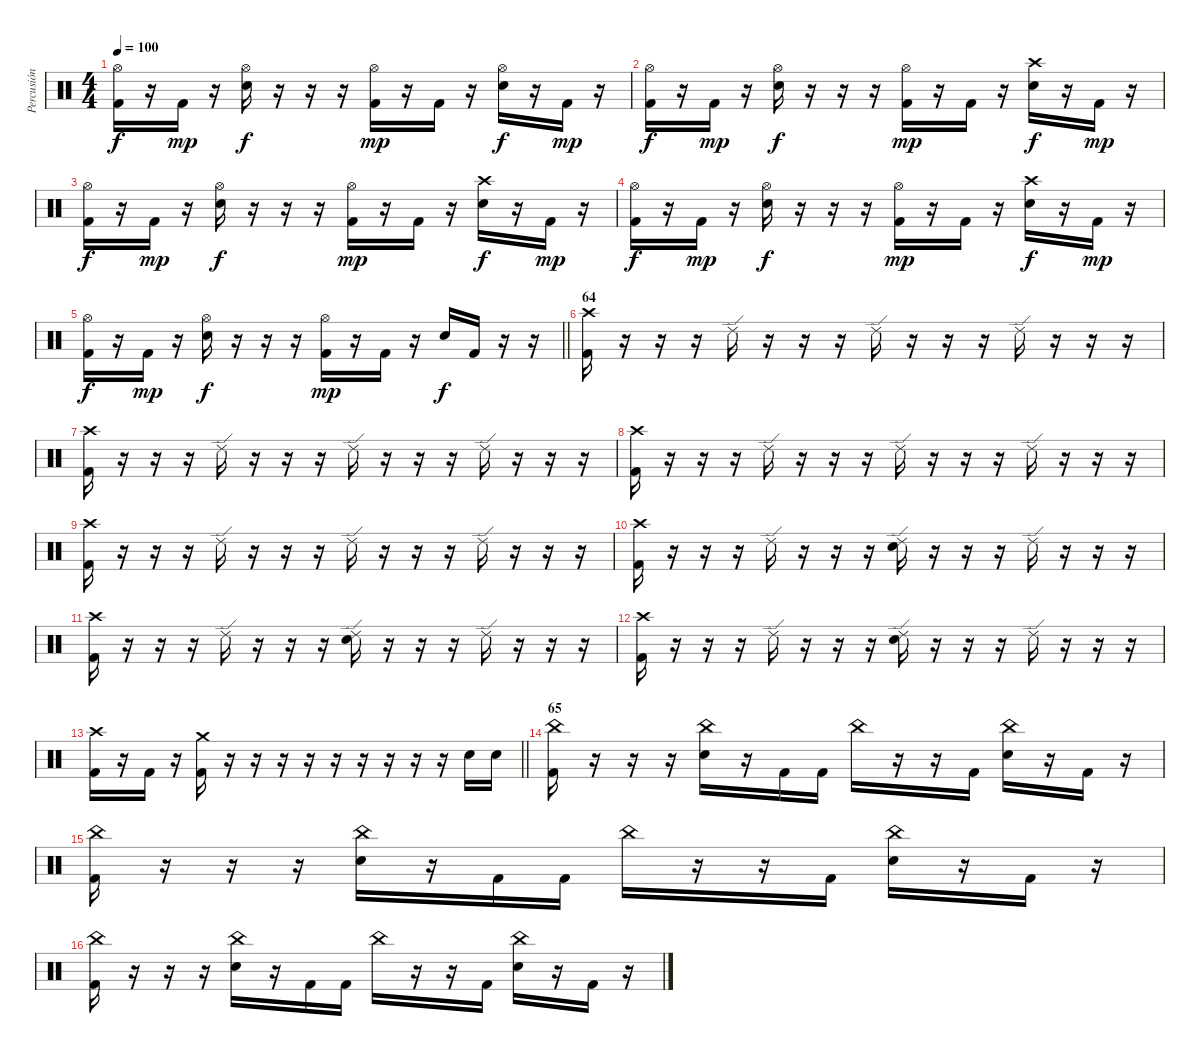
\track ("Percusión" "Percusión") {instrument percussion}
\staff {score}
\articulation defaults
\ts (4 4)
\tempo 100
\clef neutral
\ks c
("Hi-Hat (open)" "Kick (hit) 2").16{dy f} r.16 "Kick (hit) 2".16{dy mp} r.16 ("Hi-Hat (open)" "Electric Snare (hit)").16{dy f} r.16 r.16 r.16 ("Hi-Hat (open)" "Kick (hit) 2").16{dy mp} r.16 "Kick (hit) 2".16 r.16 ("Hi-Hat (open)" "Electric Snare (hit)").16{dy f} r.16 "Kick (hit) 2".16{dy mp} r.16 |
("Hi-Hat (open)" "Kick (hit) 2").16{dy f} r.16 "Kick (hit) 2".16{dy mp} r.16 ("Hi-Hat (open)" "Electric Snare (hit)").16{dy f} r.16 r.16 r.16 ("Hi-Hat (open)" "Kick (hit) 2").16{dy mp} r.16 "Kick (hit) 2".16 r.16 ("Crash high (hit)" "Electric Snare (hit)").16{dy f} r.16 "Kick (hit) 2".16{dy mp} r.16 |
("Hi-Hat (open)" "Kick (hit) 2").16{dy f} r.16 "Kick (hit) 2".16{dy mp} r.16 ("Hi-Hat (open)" "Electric Snare (hit)").16{dy f} r.16 r.16 r.16 ("Hi-Hat (open)" "Kick (hit) 2").16{dy mp} r.16 "Kick (hit) 2".16 r.16 ("Crash high (hit)" "Electric Snare (hit)").16{dy f} r.16 "Kick (hit) 2".16{dy mp} r.16 |
("Hi-Hat (open)" "Kick (hit) 2").16{dy f} r.16 "Kick (hit) 2".16{dy mp} r.16 ("Hi-Hat (open)" "Electric Snare (hit)").16{dy f} r.16 r.16 r.16 ("Hi-Hat (open)" "Kick (hit) 2").16{dy mp} r.16 "Kick (hit) 2".16 r.16 ("Crash high (hit)" "Electric Snare (hit)").16{dy f} r.16 "Kick (hit) 2".16{dy mp} r.16 |
\barLineRight lightlight
("Hi-Hat (open)" "Kick (hit) 2").16{dy f} r.16 "Kick (hit) 2".16{dy mp} r.16 ("Hi-Hat (open)" "Electric Snare (hit)").16{dy f} r.16 r.16 r.16 ("Hi-Hat (open)" "Kick (hit) 2").16{dy mp} r.16 "Kick (hit) 2".16 r.16 "Electric Snare (hit)".16{dy f} "Kick (hit) 2".16 r.16 r.16 |
\section ("" "64")
("Crash high (hit)" "Kick (hit) 2").16 r.16 r.16 r.16 "Ride (edge) 2".16 r.16 r.16 r.16 "Ride (edge) 2".16 r.16 r.16 r.16 "Ride (edge) 2".16 r.16 r.16 r.16 |
("Crash high (hit)" "Kick (hit) 2").16 r.16 r.16 r.16 "Ride (edge) 2".16 r.16 r.16 r.16 "Ride (edge) 2".16 r.16 r.16 r.16 "Ride (edge) 2".16 r.16 r.16 r.16 |
("Crash high (hit)" "Kick (hit) 2").16 r.16 r.16 r.16 "Ride (edge) 2".16 r.16 r.16 r.16 "Ride (edge) 2".16 r.16 r.16 r.16 "Ride (edge) 2".16 r.16 r.16 r.16 |
("Crash high (hit)" "Kick (hit) 2").16 r.16 r.16 r.16 "Ride (edge) 2".16 r.16 r.16 r.16 "Ride (edge) 2".16 r.16 r.16 r.16 "Ride (edge) 2".16 r.16 r.16 r.16 |
("Crash high (hit)" "Kick (hit) 2").16 r.16 r.16 r.16 "Ride (edge) 2".16 r.16 r.16 r.16 ("Ride (edge) 2" "Electric Snare (hit)").16 r.16 r.16 r.16 "Ride (edge) 2".16 r.16 r.16 r.16 |
("Crash high (hit)" "Kick (hit) 2").16 r.16 r.16 r.16 "Ride (edge) 2".16 r.16 r.16 r.16 ("Ride (edge) 2" "Electric Snare (hit)").16 r.16 r.16 r.16 "Ride (edge) 2".16 r.16 r.16 r.16 |
("Crash high (hit)" "Kick (hit) 2").16 r.16 r.16 r.16 "Ride (edge) 2".16 r.16 r.16 r.16 ("Ride (edge) 2" "Electric Snare (hit)").16 r.16 r.16 r.16 "Ride (edge) 2".16 r.16 r.16 r.16 |
\barLineRight lightlight
("Crash high (hit)" "Kick (hit) 2").16 r.16 "Kick (hit) 2".16 r.16 ("Crash medium (hit)" "Kick (hit) 2").16 r.16 r.16 r.16 r.16 r.16 r.16 r.16 r.16 r.16 "Electric Snare (hit)".16 "Electric Snare (hit)".16 |
\section ("" "65")
("China (hit)" "Kick (hit) 2").16 r.16 r.16 r.16 ("China (hit)" "Electric Snare (hit)").16 r.16 "Kick (hit) 2".16 "Kick (hit) 2".16 "China (hit)".16 r.16 r.16 "Kick (hit) 2".16 ("China (hit)" "Electric Snare (hit)").16 r.16 "Kick (hit) 2".16 r.16 |
("China (hit)" "Kick (hit) 2").16 r.16 r.16 r.16 ("China (hit)" "Electric Snare (hit)").16 r.16 "Kick (hit) 2".16 "Kick (hit) 2".16 "China (hit)".16 r.16 r.16 "Kick (hit) 2".16 ("China (hit)" "Electric Snare (hit)").16 r.16 "Kick (hit) 2".16 r.16 |
("China (hit)" "Kick (hit) 2").16 r.16 r.16 r.16 ("China (hit)" "Electric Snare (hit)").16 r.16 "Kick (hit) 2".16 "Kick (hit) 2".16 "China (hit)".16 r.16 r.16 "Kick (hit) 2".16 ("China (hit)" "Electric Snare (hit)").16 r.16 "Kick (hit) 2".16 r.16
